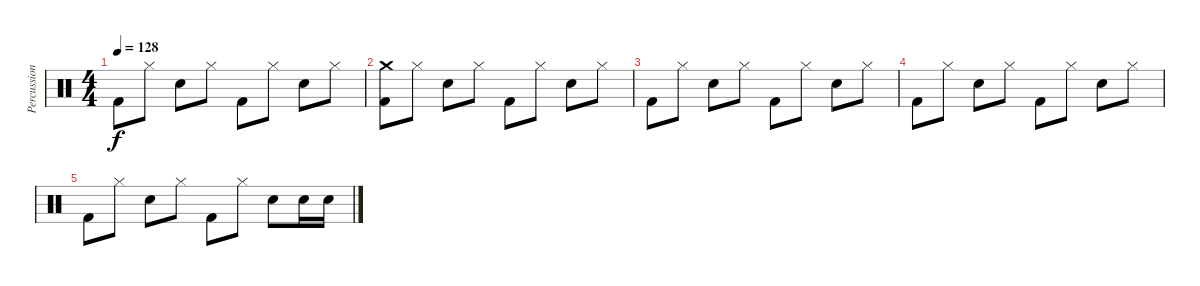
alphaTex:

\track ("Percussion" "Percussion") {instrument percussion}
\staff {score}
\articulation defaults
\ts (4 4)
\tempo 128
\clef neutral
\ks c "Kick (hit) 2".8{dy f} "Hi-Hat (closed)".8 "Snare (hit) 2".8 "Hi-Hat (closed)".8 "Kick (hit) 2".8 "Hi-Hat (closed)".8 "Snare (hit) 2".8 "Hi-Hat (closed)".8
|
("Crash medium (hit)" "Kick (hit) 2").8 "Hi-Hat (closed)".8 "Snare (hit) 2".8 "Hi-Hat (closed)".8 "Kick (hit) 2".8 "Hi-Hat (closed)".8 "Snare (hit) 2".8 "Hi-Hat (closed)".8 |
"Kick (hit) 2".8 "Hi-Hat (closed)".8 "Snare (hit) 2".8 "Hi-Hat (closed)".8 "Kick (hit) 2".8 "Hi-Hat (closed)".8 "Snare (hit) 2".8 "Hi-Hat (closed)".8 |
"Kick (hit) 2".8 "Hi-Hat (closed)".8 "Snare (hit) 2".8 "Hi-Hat (closed)".8 "Kick (hit) 2".8 "Hi-Hat (closed)".8 "Snare (hit) 2".8 "Hi-Hat (closed)".8 |
"Kick (hit) 2".8 "Hi-Hat (closed)".8 "Snare (hit) 2".8 "Hi-Hat (closed)".8 "Kick (hit) 2".8 "Hi-Hat (closed)".8 "Snare (hit) 2".8 "Snare (hit) 2".16 "Snare (hit) 2".16
